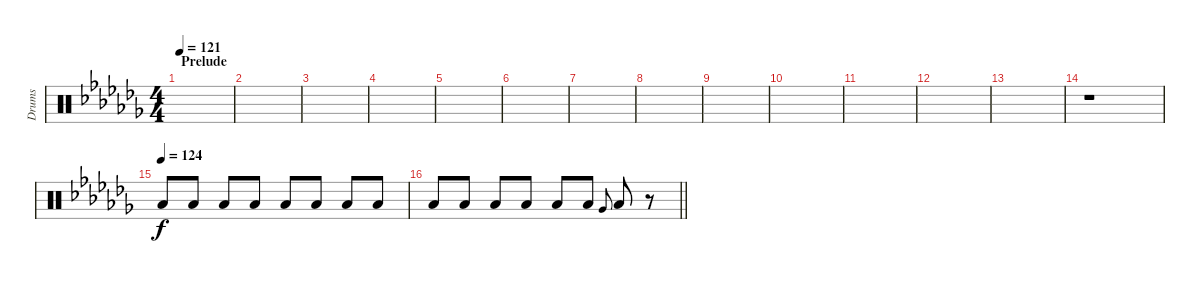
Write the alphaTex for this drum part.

\track ("Drums" "Drums") {instrument percussion}
\staff {score}
\articulation defaults
\ts (4 4)
\section ("" "Prelude")
\tempo 121
\clef neutral
\ks cb
|
|
|
|
|
|
|
|
|
|
|
|
|
r.1{volume 1} |
\tempo (124)
"Low Floor Tom (hit)".8{volume 13} "Low Floor Tom (hit)".8 "Low Floor Tom (hit)".8 "Low Floor Tom (hit)".8 "Low Floor Tom (hit)".8 "Low Floor Tom (hit)".8 "Low Floor Tom (hit)".8 "Low Floor Tom (hit)".8 |
\barLineRight lightlight "Low Floor Tom (hit)".8 "Low Floor Tom (hit)".8 "Low Floor Tom (hit)".8 "Low Floor Tom (hit)".8 "Low Floor Tom (hit)".8 "Low Floor Tom (hit)".8 "Very Low Tom (hit)".8{gr onbeat} "Low Floor Tom (hit)".8
r.8
